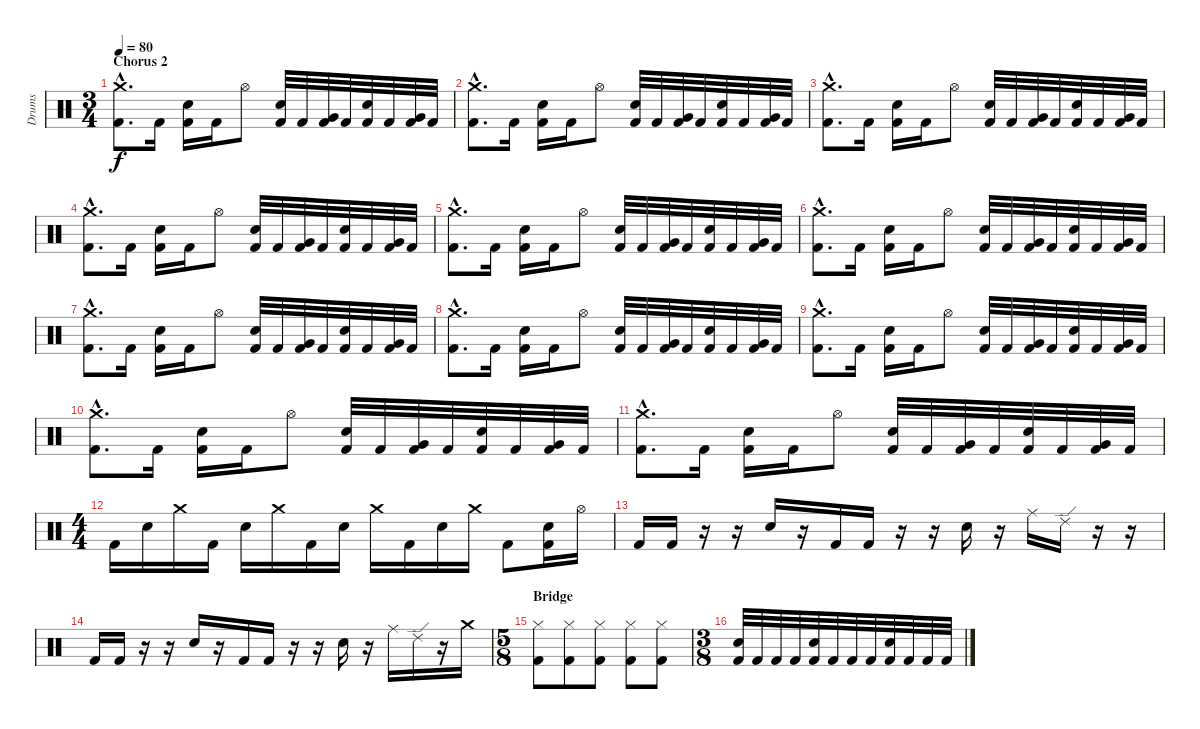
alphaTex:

\track ("Drums" "Drums") {instrument percussion}
\staff {score}
\articulation defaults
\ts (3 4)
\section ("" "Chorus 2")
\tempo 80
\clef neutral
\ks c
("Crash medium (hit)"{hac} "Kick (hit) 2"{hac}).8{d dy f} "Kick (hit) 2".16 ("Snare (hit) 2" "Kick (hit) 2").16 "Kick (hit) 2".16 "Hi-Hat (open)".8 ("Snare (hit) 2" "Kick (hit) 2").32 "Kick (hit) 2".32 ("Very Low Tom (hit)" "Kick (hit) 2").32 "Kick (hit) 2".32 ("Snare (hit) 2" "Kick (hit) 2").32 "Kick (hit) 2".32 ("Very Low Tom (hit)" "Kick (hit) 2").32 "Kick (hit) 2".32 |
("Crash medium (hit)"{hac} "Kick (hit) 2"{hac}).8{d} "Kick (hit) 2".16 ("Snare (hit) 2" "Kick (hit) 2").16 "Kick (hit) 2".16 "Hi-Hat (open)".8 ("Snare (hit) 2" "Kick (hit) 2").32 "Kick (hit) 2".32 ("Very Low Tom (hit)" "Kick (hit) 2").32 "Kick (hit) 2".32 ("Snare (hit) 2" "Kick (hit) 2").32 "Kick (hit) 2".32 ("Very Low Tom (hit)" "Kick (hit) 2").32 "Kick (hit) 2".32 |
("Crash medium (hit)"{hac} "Kick (hit) 2"{hac}).8{d} "Kick (hit) 2".16 ("Snare (hit) 2" "Kick (hit) 2").16 "Kick (hit) 2".16 "Hi-Hat (open)".8 ("Snare (hit) 2" "Kick (hit) 2").32 "Kick (hit) 2".32 ("Very Low Tom (hit)" "Kick (hit) 2").32 "Kick (hit) 2".32 ("Snare (hit) 2" "Kick (hit) 2").32 "Kick (hit) 2".32 ("Very Low Tom (hit)" "Kick (hit) 2").32 "Kick (hit) 2".32 |
("Crash medium (hit)"{hac} "Kick (hit) 2"{hac}).8{d} "Kick (hit) 2".16 ("Snare (hit) 2" "Kick (hit) 2").16 "Kick (hit) 2".16 "Hi-Hat (open)".8 ("Snare (hit) 2" "Kick (hit) 2").32 "Kick (hit) 2".32 ("Very Low Tom (hit)" "Kick (hit) 2").32 "Kick (hit) 2".32 ("Snare (hit) 2" "Kick (hit) 2").32 "Kick (hit) 2".32 ("Very Low Tom (hit)" "Kick (hit) 2").32 "Kick (hit) 2".32 |
("Crash medium (hit)"{hac} "Kick (hit) 2"{hac}).8{d} "Kick (hit) 2".16 ("Snare (hit) 2" "Kick (hit) 2").16 "Kick (hit) 2".16 "Hi-Hat (open)".8 ("Snare (hit) 2" "Kick (hit) 2").32 "Kick (hit) 2".32 ("Very Low Tom (hit)" "Kick (hit) 2").32 "Kick (hit) 2".32 ("Snare (hit) 2" "Kick (hit) 2").32 "Kick (hit) 2".32 ("Very Low Tom (hit)" "Kick (hit) 2").32 "Kick (hit) 2".32 |
("Crash medium (hit)"{hac} "Kick (hit) 2"{hac}).8{d} "Kick (hit) 2".16 ("Snare (hit) 2" "Kick (hit) 2").16 "Kick (hit) 2".16 "Hi-Hat (open)".8 ("Snare (hit) 2" "Kick (hit) 2").32 "Kick (hit) 2".32 ("Very Low Tom (hit)" "Kick (hit) 2").32 "Kick (hit) 2".32 ("Snare (hit) 2" "Kick (hit) 2").32 "Kick (hit) 2".32 ("Very Low Tom (hit)" "Kick (hit) 2").32 "Kick (hit) 2".32 |
("Crash medium (hit)"{hac} "Kick (hit) 2"{hac}).8{d} "Kick (hit) 2".16 ("Snare (hit) 2" "Kick (hit) 2").16 "Kick (hit) 2".16 "Hi-Hat (open)".8 ("Snare (hit) 2" "Kick (hit) 2").32 "Kick (hit) 2".32 ("Very Low Tom (hit)" "Kick (hit) 2").32 "Kick (hit) 2".32 ("Snare (hit) 2" "Kick (hit) 2").32 "Kick (hit) 2".32 ("Very Low Tom (hit)" "Kick (hit) 2").32 "Kick (hit) 2".32 |
("Crash medium (hit)"{hac} "Kick (hit) 2"{hac}).8{d} "Kick (hit) 2".16 ("Snare (hit) 2" "Kick (hit) 2").16 "Kick (hit) 2".16 "Hi-Hat (open)".8 ("Snare (hit) 2" "Kick (hit) 2").32 "Kick (hit) 2".32 ("Very Low Tom (hit)" "Kick (hit) 2").32 "Kick (hit) 2".32 ("Snare (hit) 2" "Kick (hit) 2").32 "Kick (hit) 2".32 ("Very Low Tom (hit)" "Kick (hit) 2").32 "Kick (hit) 2".32 |
("Crash medium (hit)"{hac} "Kick (hit) 2"{hac}).8{d} "Kick (hit) 2".16 ("Snare (hit) 2" "Kick (hit) 2").16 "Kick (hit) 2".16 "Hi-Hat (open)".8 ("Snare (hit) 2" "Kick (hit) 2").32 "Kick (hit) 2".32 ("Very Low Tom (hit)" "Kick (hit) 2").32 "Kick (hit) 2".32 ("Snare (hit) 2" "Kick (hit) 2").32 "Kick (hit) 2".32 ("Very Low Tom (hit)" "Kick (hit) 2").32 "Kick (hit) 2".32 |
("Crash medium (hit)"{hac} "Kick (hit) 2"{hac}).8{d} "Kick (hit) 2".16 ("Snare (hit) 2" "Kick (hit) 2").16 "Kick (hit) 2".16 "Hi-Hat (open)".8 ("Snare (hit) 2" "Kick (hit) 2").32 "Kick (hit) 2".32 ("Very Low Tom (hit)" "Kick (hit) 2").32 "Kick (hit) 2".32 ("Snare (hit) 2" "Kick (hit) 2").32 "Kick (hit) 2".32 ("Very Low Tom (hit)" "Kick (hit) 2").32 "Kick (hit) 2".32 |
("Crash medium (hit)"{hac} "Kick (hit) 2"{hac}).8{d} "Kick (hit) 2".16 ("Snare (hit) 2" "Kick (hit) 2").16 "Kick (hit) 2".16 "Hi-Hat (open)".8 ("Snare (hit) 2" "Kick (hit) 2").32 "Kick (hit) 2".32 ("Very Low Tom (hit)" "Kick (hit) 2").32 "Kick (hit) 2".32 ("Snare (hit) 2" "Kick (hit) 2").32 "Kick (hit) 2".32 ("Very Low Tom (hit)" "Kick (hit) 2").32 "Kick (hit) 2".32 |
\ts (4 4)
"Kick (hit) 2".16 "Snare (hit) 2".16 "Crash medium (hit)".16 "Kick (hit) 2".16 "Snare (hit) 2".16 "Crash medium (hit)".16 "Kick (hit) 2".16 "Snare (hit) 2".16 "Crash medium (hit)".16 "Kick (hit) 2".16 "Snare (hit) 2".16 "Crash medium (hit)".16 "Kick (hit) 2".8 ("Snare (hit) 2" "Kick (hit) 2").16 "Hi-Hat (open)".16 |
"Kick (hit) 2".16 "Kick (hit) 2".16 r.16 r.16 "Snare (hit) 2".16 r.16 "Kick (hit) 2".16 "Kick (hit) 2".16 r.16 r.16 "Snare (hit) 2".16 r.16 "Ride (middle)".16 "Ride (edge) 2".16 r.16 r.16 |
"Kick (hit) 2".16 "Kick (hit) 2".16 r.16 r.16 "Snare (hit) 2".16 r.16 "Kick (hit) 2".16 "Kick (hit) 2".16 r.16 r.16 "Snare (hit) 2".16 r.16 "Ride (middle)".16 "Ride (edge) 2".16 r.16 "Crash medium (hit)".16 |
\ts (5 8)
\section ("" "Bridge")
("Hi-Hat (closed)" "Kick (hit) 2").8 ("Hi-Hat (closed)" "Kick (hit) 2").8 ("Hi-Hat (closed)" "Kick (hit) 2").8 ("Hi-Hat (closed)" "Kick (hit) 2").8 ("Hi-Hat (closed)" "Kick (hit) 2").8 |
\ts (3 8)
("Snare (hit) 2" "Kick (hit) 2").32 "Kick (hit) 2".32 "Kick (hit) 2".32 "Kick (hit) 2".32 ("Snare (hit) 2" "Kick (hit) 2").32 "Kick (hit) 2".32 "Kick (hit) 2".32 "Kick (hit) 2".32 ("Snare (hit) 2" "Kick (hit) 2").32 "Kick (hit) 2".32 "Kick (hit) 2".32 "Kick (hit) 2".32
